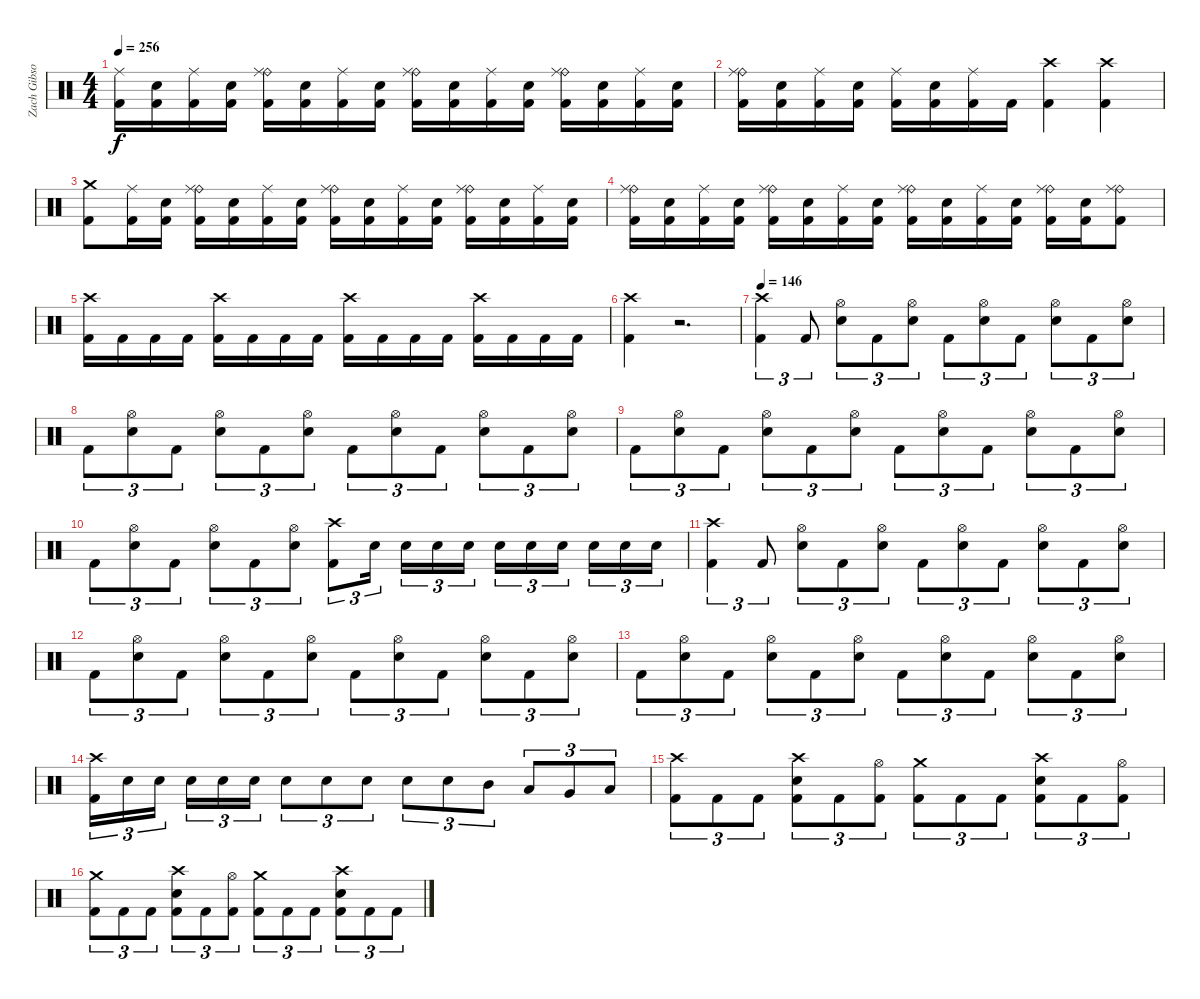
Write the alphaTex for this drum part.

\track ("Zach Gibson (Drums)" "Zach Gibso") {instrument percussion}
\staff {score}
\articulation defaults
\ts (4 4)
\tempo 256
\clef neutral
\ks c
("Ride (middle)" "Kick (hit) 2").16{dy f} ("Snare (hit) 2" "Kick (hit) 2").16 ("Ride (middle)" "Kick (hit) 2").16 ("Snare (hit) 2" "Kick (hit) 2").16 ("Ride (bell)" "Ride (middle)" "Kick (hit) 2").16 ("Snare (hit) 2" "Kick (hit) 2").16 ("Ride (middle)" "Kick (hit) 2").16 ("Snare (hit) 2" "Kick (hit) 2").16 ("Ride (bell)" "Ride (middle)" "Kick (hit) 2").16 ("Snare (hit) 2" "Kick (hit) 2").16 ("Ride (middle)" "Kick (hit) 2").16 ("Snare (hit) 2" "Kick (hit) 2").16 ("Ride (bell)" "Ride (middle)" "Kick (hit) 2").16 ("Snare (hit) 2" "Kick (hit) 2").16 ("Ride (middle)" "Kick (hit) 2").16 ("Snare (hit) 2" "Kick (hit) 2").16 |
("Ride (bell)" "Ride (middle)" "Kick (hit) 2").16 ("Snare (hit) 2" "Kick (hit) 2").16 ("Ride (middle)" "Kick (hit) 2").16 ("Snare (hit) 2" "Kick (hit) 2").16 ("Ride (middle)" "Kick (hit) 2").16 ("Snare (hit) 2" "Kick (hit) 2").16 ("Ride (middle)" "Kick (hit) 2").16 "Kick (hit) 2".16 ("Crash high (hit)" "Kick (hit) 2").4 ("Crash high (hit)" "Kick (hit) 2").4 |
("Crash medium (hit)" "Kick (hit) 2").8 ("Ride (middle)" "Kick (hit) 2").16 ("Snare (hit) 2" "Kick (hit) 2").16 ("Ride (bell)" "Ride (middle)" "Kick (hit) 2").16 ("Snare (hit) 2" "Kick (hit) 2").16 ("Ride (middle)" "Kick (hit) 2").16 ("Snare (hit) 2" "Kick (hit) 2").16 ("Ride (bell)" "Ride (middle)" "Kick (hit) 2").16 ("Snare (hit) 2" "Kick (hit) 2").16 ("Ride (middle)" "Kick (hit) 2").16 ("Snare (hit) 2" "Kick (hit) 2").16 ("Ride (bell)" "Ride (middle)" "Kick (hit) 2").16 ("Kick (hit) 2" "Snare (hit) 2").16 ("Ride (middle)" "Kick (hit) 2").16 ("Kick (hit) 2" "Snare (hit) 2").16 |
("Ride (bell)" "Ride (middle)" "Kick (hit) 2").16 ("Snare (hit) 2" "Kick (hit) 2").16 ("Ride (middle)" "Kick (hit) 2").16 ("Snare (hit) 2" "Kick (hit) 2").16 ("Ride (bell)" "Ride (middle)" "Kick (hit) 2").16 ("Snare (hit) 2" "Kick (hit) 2").16 ("Ride (middle)" "Kick (hit) 2").16 ("Snare (hit) 2" "Kick (hit) 2").16 ("Ride (bell)" "Ride (middle)" "Kick (hit) 2").16 ("Snare (hit) 2" "Kick (hit) 2").16 ("Ride (middle)" "Kick (hit) 2").16 ("Snare (hit) 2" "Kick (hit) 2").16 ("Ride (bell)" "Ride (middle)" "Kick (hit) 2").16 ("Snare (hit) 2" "Kick (hit) 2").16 ("Ride (bell)" "Ride (middle)" "Kick (hit) 2").8 |
("Crash high (hit)" "Kick (hit) 2").16 "Kick (hit) 2".16 "Kick (hit) 2".16 "Kick (hit) 2".16 ("Crash high (hit)" "Kick (hit) 2").16 "Kick (hit) 2".16 "Kick (hit) 2".16 "Kick (hit) 2".16 ("Crash high (hit)" "Kick (hit) 2").16 "Kick (hit) 2".16 "Kick (hit) 2".16 "Kick (hit) 2".16 ("Crash high (hit)" "Kick (hit) 2").16 "Kick (hit) 2".16 "Kick (hit) 2".16 "Kick (hit) 2".16 |
("Crash high (hit)" "Kick (hit) 2").4 r.2{d volume 0} |
\tempo 146
("Crash high (hit)" "Kick (hit) 2").4{tu (3 2) volume 16 balance 8} "Kick (hit) 2".8{tu (3 2)} ("Hi-Hat (open)" "Snare (hit) 2").8{tu (3 2)} "Kick (hit) 2".8{tu (3 2)} ("Hi-Hat (open)" "Snare (hit) 2").8{tu (3 2)} "Kick (hit) 2".8{tu (3 2)} ("Hi-Hat (open)" "Snare (hit) 2").8{tu (3 2)} "Kick (hit) 2".8{tu (3 2)} ("Hi-Hat (open)" "Snare (hit) 2").8{tu (3 2)} "Kick (hit) 2".8{tu (3 2)} ("Hi-Hat (open)" "Snare (hit) 2").8{tu (3 2)} |
"Kick (hit) 2".8{tu (3 2)} ("Hi-Hat (open)" "Snare (hit) 2").8{tu (3 2)} "Kick (hit) 2".8{tu (3 2)} ("Hi-Hat (open)" "Snare (hit) 2").8{tu (3 2)} "Kick (hit) 2".8{tu (3 2)} ("Hi-Hat (open)" "Snare (hit) 2").8{tu (3 2)} "Kick (hit) 2".8{tu (3 2)} ("Hi-Hat (open)" "Snare (hit) 2").8{tu (3 2)} "Kick (hit) 2".8{tu (3 2)} ("Hi-Hat (open)" "Snare (hit) 2").8{tu (3 2)} "Kick (hit) 2".8{tu (3 2)} ("Hi-Hat (open)" "Snare (hit) 2").8{tu (3 2)} |
"Kick (hit) 2".8{tu (3 2)} ("Hi-Hat (open)" "Snare (hit) 2").8{tu (3 2)} "Kick (hit) 2".8{tu (3 2)} ("Hi-Hat (open)" "Snare (hit) 2").8{tu (3 2)} "Kick (hit) 2".8{tu (3 2)} ("Hi-Hat (open)" "Snare (hit) 2").8{tu (3 2)} "Kick (hit) 2".8{tu (3 2)} ("Hi-Hat (open)" "Snare (hit) 2").8{tu (3 2)} "Kick (hit) 2".8{tu (3 2)} ("Hi-Hat (open)" "Snare (hit) 2").8{tu (3 2)} "Kick (hit) 2".8{tu (3 2)} ("Hi-Hat (open)" "Snare (hit) 2").8{tu (3 2)} |
"Kick (hit) 2".8{tu (3 2)} ("Hi-Hat (open)" "Snare (hit) 2").8{tu (3 2)} "Kick (hit) 2".8{tu (3 2)} ("Hi-Hat (open)" "Snare (hit) 2").8{tu (3 2)} "Kick (hit) 2".8{tu (3 2)} ("Hi-Hat (open)" "Snare (hit) 2").8{tu (3 2)} ("Crash high (hit)" "Kick (hit) 2").8{tu (3 2)} "Snare (hit) 2".16{tu (3 2)} "Snare (hit) 2".16{tu (3 2)} "Snare (hit) 2".16{tu (3 2)} "Snare (hit) 2".16{tu (3 2)} "Snare (hit) 2".16{tu (3 2)} "Snare (hit) 2".16{tu (3 2)} "Snare (hit) 2".16{tu (3 2)} "Snare (hit) 2".16{tu (3 2)} "Snare (hit) 2".16{tu (3 2)} "Snare (hit) 2".16{tu (3 2)} |
("Crash high (hit)" "Kick (hit) 2").4{tu (3 2)} "Kick (hit) 2".8{tu (3 2)} ("Hi-Hat (open)" "Snare (hit) 2").8{tu (3 2)} "Kick (hit) 2".8{tu (3 2)} ("Hi-Hat (open)" "Snare (hit) 2").8{tu (3 2)} "Kick (hit) 2".8{tu (3 2)} ("Hi-Hat (open)" "Snare (hit) 2").8{tu (3 2)} "Kick (hit) 2".8{tu (3 2)} ("Hi-Hat (open)" "Snare (hit) 2").8{tu (3 2)} "Kick (hit) 2".8{tu (3 2)} ("Hi-Hat (open)" "Snare (hit) 2").8{tu (3 2)} |
"Kick (hit) 2".8{tu (3 2)} ("Hi-Hat (open)" "Snare (hit) 2").8{tu (3 2)} "Kick (hit) 2".8{tu (3 2)} ("Hi-Hat (open)" "Snare (hit) 2").8{tu (3 2)} "Kick (hit) 2".8{tu (3 2)} ("Hi-Hat (open)" "Snare (hit) 2").8{tu (3 2)} "Kick (hit) 2".8{tu (3 2)} ("Hi-Hat (open)" "Snare (hit) 2").8{tu (3 2)} "Kick (hit) 2".8{tu (3 2)} ("Hi-Hat (open)" "Snare (hit) 2").8{tu (3 2)} "Kick (hit) 2".8{tu (3 2)} ("Hi-Hat (open)" "Snare (hit) 2").8{tu (3 2)} |
"Kick (hit) 2".8{tu (3 2)} ("Hi-Hat (open)" "Snare (hit) 2").8{tu (3 2)} "Kick (hit) 2".8{tu (3 2)} ("Hi-Hat (open)" "Snare (hit) 2").8{tu (3 2)} "Kick (hit) 2".8{tu (3 2)} ("Hi-Hat (open)" "Snare (hit) 2").8{tu (3 2)} "Kick (hit) 2".8{tu (3 2)} ("Hi-Hat (open)" "Snare (hit) 2").8{tu (3 2)} "Kick (hit) 2".8{tu (3 2)} ("Hi-Hat (open)" "Snare (hit) 2").8{tu (3 2)} "Kick (hit) 2".8{tu (3 2)} ("Hi-Hat (open)" "Snare (hit) 2").8{tu (3 2)} |
("Crash high (hit)" "Kick (hit) 2").16{tu (3 2)} "Snare (hit) 2".16{tu (3 2)} "Snare (hit) 2".16{tu (3 2)} "Snare (hit) 2".16{tu (3 2)} "Snare (hit) 2".16{tu (3 2)} "Snare (hit) 2".16{tu (3 2)} "Snare (hit) 2".8{tu (3 2)} "Snare (hit) 2".8{tu (3 2)} "Snare (hit) 2".8{tu (3 2)} "Snare (hit) 2".8{tu (3 2)} "Snare (hit) 2".8{tu (3 2)} "Mid Tom (hit)".8{tu (3 2)} "Low Tom (hit)".8{tu (3 2)} "Very Low Tom (hit)".8{tu (3 2)} "Low Floor Tom (hit)".8{tu (3 2)} |
("Crash high (hit)" "Kick (hit) 2").8{tu (3 2)} "Kick (hit) 2".8{tu (3 2)} "Kick (hit) 2".8{tu (3 2)} ("Crash high (hit)" "Snare (hit) 2" "Kick (hit) 2").8{tu (3 2)} "Kick (hit) 2".8{tu (3 2)} ("Hi-Hat (open)" "Kick (hit) 2").8{tu (3 2)} ("Crash medium (hit)" "Kick (hit) 2").8{tu (3 2)} "Kick (hit) 2".8{tu (3 2)} "Kick (hit) 2".8{tu (3 2)} ("Crash high (hit)" "Snare (hit) 2" "Kick (hit) 2").8{tu (3 2)} "Kick (hit) 2".8{tu (3 2)} ("Hi-Hat (open)" "Kick (hit) 2").8{tu (3 2)} |
("Crash medium (hit)" "Kick (hit) 2").8{tu (3 2)} "Kick (hit) 2".8{tu (3 2)} "Kick (hit) 2".8{tu (3 2)} ("Crash high (hit)" "Snare (hit) 2" "Kick (hit) 2").8{tu (3 2)} "Kick (hit) 2".8{tu (3 2)} ("Hi-Hat (open)" "Kick (hit) 2").8{tu (3 2)} ("Crash medium (hit)" "Kick (hit) 2").8{tu (3 2)} "Kick (hit) 2".8{tu (3 2)} "Kick (hit) 2".8{tu (3 2)} ("Crash high (hit)" "Snare (hit) 2" "Kick (hit) 2").8{tu (3 2)} "Kick (hit) 2".8{tu (3 2)} "Kick (hit) 2".8{tu (3 2)}
